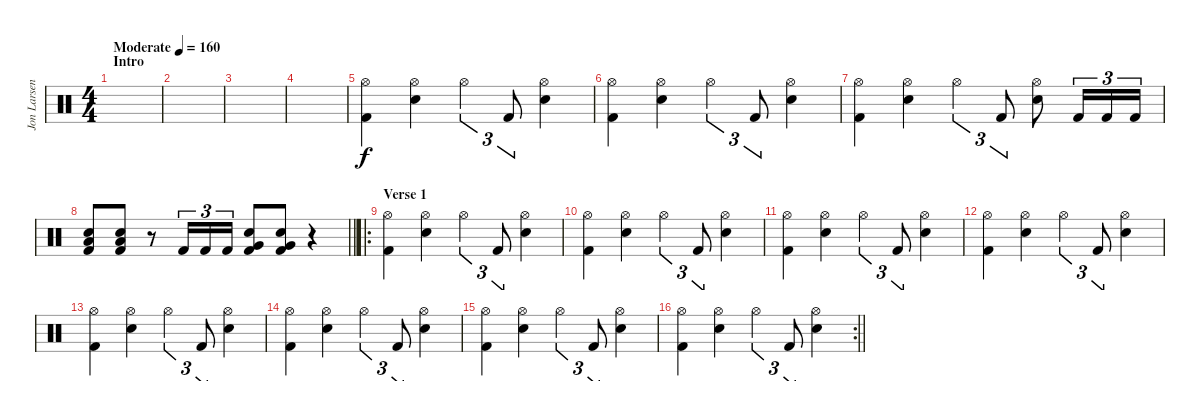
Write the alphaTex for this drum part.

\track ("Jon Larsen" "Jon Larsen") {instrument percussion}
\staff {score}
\articulation defaults
\ts (4 4)
\section ("" "Intro")
\tempo (160 "Moderate")
\clef neutral
\ks c
|
|
|
|
("Hi-Hat (open)" "Kick (hit) 2").4 ("Hi-Hat (open)" "Electric Snare (hit)").4 "Hi-Hat (open)".4{tu (3 2)} "Kick (hit) 2".8{tu (3 2)} ("Hi-Hat (open)" "Electric Snare (hit)").4 |
("Hi-Hat (open)" "Kick (hit) 2").4 ("Hi-Hat (open)" "Electric Snare (hit)").4 "Hi-Hat (open)".4{tu (3 2)} "Kick (hit) 2".8{tu (3 2)} ("Hi-Hat (open)" "Electric Snare (hit)").4 |
("Hi-Hat (open)" "Kick (hit) 2").4 ("Hi-Hat (open)" "Electric Snare (hit)").4 "Hi-Hat (open)".4{tu (3 2)} "Kick (hit) 2".8{tu (3 2)} ("Hi-Hat (open)" "Electric Snare (hit)").8 "Kick (hit) 2".16{tu (3 2)} "Kick (hit) 2".16{tu (3 2)} "Kick (hit) 2".16{tu (3 2)} |
\barLineRight lightlight
("Low Tom (hit)" "Electric Snare (hit)" "Kick (hit) 2").8 ("Low Tom (hit)" "Electric Snare (hit)" "Kick (hit) 2").8 r.8 "Kick (hit) 2".16{tu (3 2)} "Kick (hit) 2".16{tu (3 2)} "Kick (hit) 2".16{tu (3 2)} ("Very Low Tom (hit)" "Electric Snare (hit)" "Kick (hit) 2").8 ("Very Low Tom (hit)" "Electric Snare (hit)" "Kick (hit) 2").8 r.4 |
\ro
\section ("" "Verse 1")
("Hi-Hat (open)" "Kick (hit) 2").4 ("Hi-Hat (open)" "Electric Snare (hit)").4 "Hi-Hat (open)".4{tu (3 2)} "Kick (hit) 2".8{tu (3 2)} ("Hi-Hat (open)" "Electric Snare (hit)").4 |
("Hi-Hat (open)" "Kick (hit) 2").4 ("Hi-Hat (open)" "Electric Snare (hit)").4 "Hi-Hat (open)".4{tu (3 2)} "Kick (hit) 2".8{tu (3 2)} ("Hi-Hat (open)" "Electric Snare (hit)").4 |
("Hi-Hat (open)" "Kick (hit) 2").4 ("Hi-Hat (open)" "Electric Snare (hit)").4 "Hi-Hat (open)".4{tu (3 2)} "Kick (hit) 2".8{tu (3 2)} ("Hi-Hat (open)" "Electric Snare (hit)").4 |
("Hi-Hat (open)" "Kick (hit) 2").4 ("Hi-Hat (open)" "Electric Snare (hit)").4 "Hi-Hat (open)".4{tu (3 2)} "Kick (hit) 2".8{tu (3 2)} ("Hi-Hat (open)" "Electric Snare (hit)").4 |
("Hi-Hat (open)" "Kick (hit) 2").4 ("Hi-Hat (open)" "Electric Snare (hit)").4 "Hi-Hat (open)".4{tu (3 2)} "Kick (hit) 2".8{tu (3 2)} ("Hi-Hat (open)" "Electric Snare (hit)").4 |
("Hi-Hat (open)" "Kick (hit) 2").4 ("Hi-Hat (open)" "Electric Snare (hit)").4 "Hi-Hat (open)".4{tu (3 2)} "Kick (hit) 2".8{tu (3 2)} ("Hi-Hat (open)" "Electric Snare (hit)").4 |
("Hi-Hat (open)" "Kick (hit) 2").4 ("Hi-Hat (open)" "Electric Snare (hit)").4 "Hi-Hat (open)".4{tu (3 2)} "Kick (hit) 2".8{tu (3 2)} ("Hi-Hat (open)" "Electric Snare (hit)").4 |
\rc 2
\barLineRight lightlight
("Hi-Hat (open)" "Kick (hit) 2").4 ("Hi-Hat (open)" "Electric Snare (hit)").4 "Hi-Hat (open)".4{tu (3 2)} "Kick (hit) 2".8{tu (3 2)} ("Hi-Hat (open)" "Electric Snare (hit)").4
